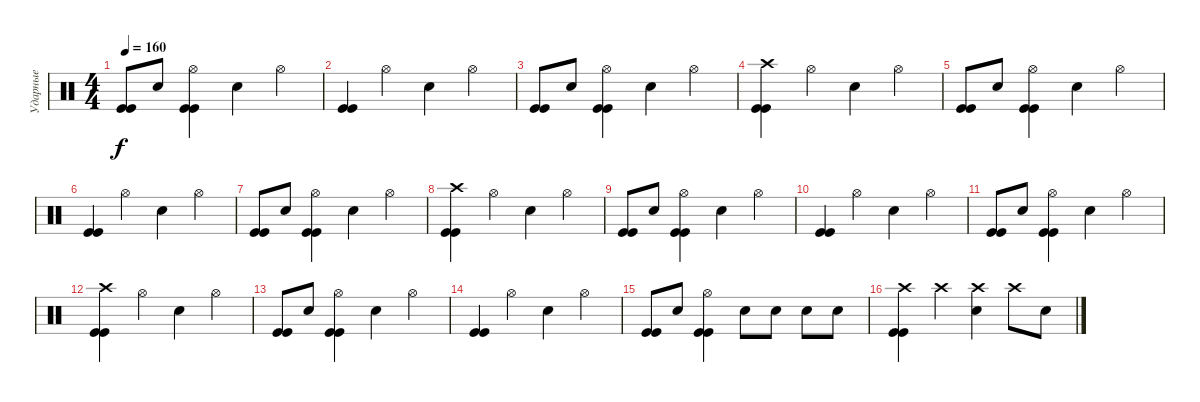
\track ("Ударные" "Ударные") {instrument percussion}
\staff {score}
\articulation defaults
\ts (4 4)
\tempo 160
\clef neutral
\ks c
("Kick (hit)" "Kick (hit)").8{dy f} "Electric Snare (hit)".8 ("Hi-Hat (open)" "Kick (hit)" "Kick (hit)").4 "Electric Snare (hit)".4 "Hi-Hat (open)".4 |
("Kick (hit)" "Kick (hit)").4 "Hi-Hat (open)".4 "Electric Snare (hit)".4 "Hi-Hat (open)".4 |
("Kick (hit)" "Kick (hit)").8 "Electric Snare (hit)".8 ("Hi-Hat (open)" "Kick (hit)" "Kick (hit)").4 "Electric Snare (hit)".4 "Hi-Hat (open)".4 |
("Crash high (hit)" "Kick (hit)" "Kick (hit)").4 "Hi-Hat (open)".4 "Electric Snare (hit)".4 "Hi-Hat (open)".4 |
("Kick (hit)" "Kick (hit)").8 "Electric Snare (hit)".8 ("Hi-Hat (open)" "Kick (hit)" "Kick (hit)").4 "Electric Snare (hit)".4 "Hi-Hat (open)".4 |
("Kick (hit)" "Kick (hit)").4 "Hi-Hat (open)".4 "Electric Snare (hit)".4 "Hi-Hat (open)".4 |
("Kick (hit)" "Kick (hit)").8 "Electric Snare (hit)".8 ("Hi-Hat (open)" "Kick (hit)" "Kick (hit)").4 "Electric Snare (hit)".4 "Hi-Hat (open)".4 |
("Crash high (hit)" "Kick (hit)" "Kick (hit)").4 "Hi-Hat (open)".4 "Electric Snare (hit)".4 "Hi-Hat (open)".4 |
("Kick (hit)" "Kick (hit)").8 "Electric Snare (hit)".8 ("Hi-Hat (open)" "Kick (hit)" "Kick (hit)").4 "Electric Snare (hit)".4 "Hi-Hat (open)".4 |
("Kick (hit)" "Kick (hit)").4 "Hi-Hat (open)".4 "Electric Snare (hit)".4 "Hi-Hat (open)".4 |
("Kick (hit)" "Kick (hit)").8 "Electric Snare (hit)".8 ("Hi-Hat (open)" "Kick (hit)" "Kick (hit)").4 "Electric Snare (hit)".4 "Hi-Hat (open)".4 |
("Crash high (hit)" "Kick (hit)" "Kick (hit)").4 "Hi-Hat (open)".4 "Electric Snare (hit)".4 "Hi-Hat (open)".4 |
("Kick (hit)" "Kick (hit)").8 "Electric Snare (hit)".8 ("Hi-Hat (open)" "Kick (hit)" "Kick (hit)").4 "Electric Snare (hit)".4 "Hi-Hat (open)".4 |
("Kick (hit)" "Kick (hit)").4 "Hi-Hat (open)".4 "Electric Snare (hit)".4 "Hi-Hat (open)".4 |
("Kick (hit)" "Kick (hit)").8 "Electric Snare (hit)".8 ("Hi-Hat (open)" "Kick (hit)" "Kick (hit)").4 "Electric Snare (hit)".8 "Electric Snare (hit)".8 "Electric Snare (hit)".8 "Electric Snare (hit)".8 |
("Crash high (hit)" "Kick (hit)" "Kick (hit)").4 "Crash high (hit)".4 ("Crash high (hit)" "Electric Snare (hit)").4 "Crash high (hit)".8 "Electric Snare (hit)".8
